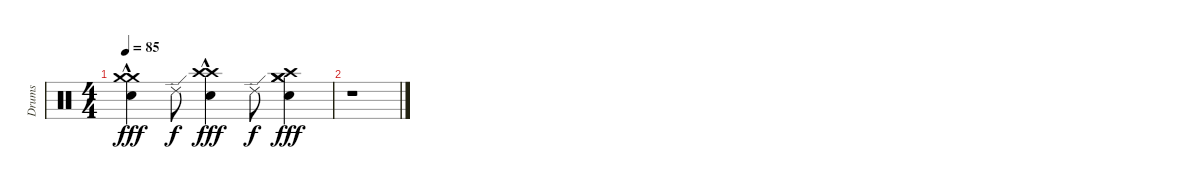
\track ("Drums" "Drums") {instrument percussion}
\staff {score}
\articulation defaults
\ts (4 4)
\tempo 85
\clef neutral
\ks c
("Electric Snare (hit)" "Crash medium (hit)"{hac} "Crash medium (hit)"{hac}).4{dy fff} "Ride (edge) 2".8{dy f} ("Electric Snare (hit)" "Crash high (hit)"{hac} "Crash high (hit)"{hac}).4{dy fff} "Ride (edge) 2".8{dy f} ("Crash high (hit)" "Crash medium (hit)" "Crash medium (hit)" "Electric Snare (hit)").4{dy fff} |
r.1
